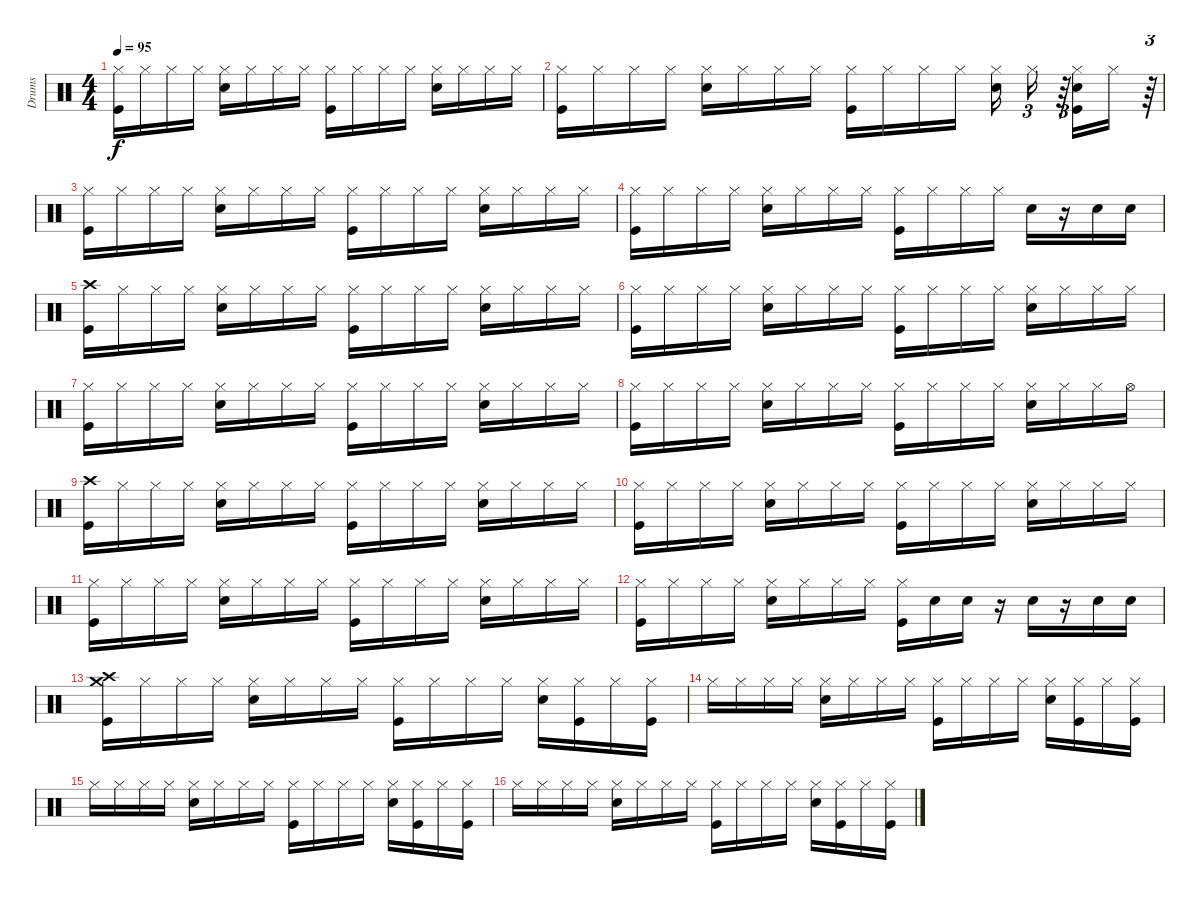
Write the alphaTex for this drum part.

\track ("Drums" "Drums") {instrument percussion}
\staff {score}
\articulation defaults
\ts (4 4)
\tempo 95
\clef neutral
\ks c
("Hi-Hat (closed)" "Kick (hit)").16{dy f} "Hi-Hat (closed)".16 "Hi-Hat (closed)".16 "Hi-Hat (closed)".16 ("Hi-Hat (closed)" "Snare (hit) 2").16 "Hi-Hat (closed)".16 "Hi-Hat (closed)".16 "Hi-Hat (closed)".16 ("Hi-Hat (closed)" "Kick (hit)").16 "Hi-Hat (closed)".16 "Hi-Hat (closed)".16 "Hi-Hat (closed)".16 ("Hi-Hat (closed)" "Snare (hit) 2").16 "Hi-Hat (closed)".16 "Hi-Hat (closed)".16 "Hi-Hat (closed)".16 |
("Hi-Hat (closed)" "Kick (hit)").16 "Hi-Hat (closed)".16 "Hi-Hat (closed)".16 "Hi-Hat (closed)".16 ("Hi-Hat (closed)" "Snare (hit) 2").16 "Hi-Hat (closed)".16 "Hi-Hat (closed)".16 "Hi-Hat (closed)".16 ("Hi-Hat (closed)" "Kick (hit)").16 "Hi-Hat (closed)".16 "Hi-Hat (closed)".16 "Hi-Hat (closed)".16 ("Hi-Hat (closed)" "Snare (hit) 2").16 "Hi-Hat (closed)".16{tu (3 2)} r.64{tu (3 2)} ("Hi-Hat (closed)" "Snare (hit) 2" "Kick (hit)").16 "Hi-Hat (closed)".16 r.64{tu (3 2)} |
("Hi-Hat (closed)" "Kick (hit)").16 "Hi-Hat (closed)".16 "Hi-Hat (closed)".16 "Hi-Hat (closed)".16 ("Hi-Hat (closed)" "Snare (hit) 2").16 "Hi-Hat (closed)".16 "Hi-Hat (closed)".16 "Hi-Hat (closed)".16 ("Hi-Hat (closed)" "Kick (hit)").16 "Hi-Hat (closed)".16 "Hi-Hat (closed)".16 "Hi-Hat (closed)".16 ("Hi-Hat (closed)" "Snare (hit) 2").16 "Hi-Hat (closed)".16 "Hi-Hat (closed)".16 "Hi-Hat (closed)".16 |
("Hi-Hat (closed)" "Kick (hit)").16 "Hi-Hat (closed)".16 "Hi-Hat (closed)".16 "Hi-Hat (closed)".16 ("Hi-Hat (closed)" "Snare (hit) 2").16 "Hi-Hat (closed)".16 "Hi-Hat (closed)".16 "Hi-Hat (closed)".16 ("Hi-Hat (closed)" "Kick (hit)").16 "Hi-Hat (closed)".16 "Hi-Hat (closed)".16 "Hi-Hat (closed)".16 "Snare (hit) 2".16 r.16 "Snare (hit) 2".16 "Snare (hit) 2".16 |
("Crash high (hit)" "Kick (hit)").16 "Hi-Hat (closed)".16 "Hi-Hat (closed)".16 "Hi-Hat (closed)".16 ("Hi-Hat (closed)" "Snare (hit) 2").16 "Hi-Hat (closed)".16 "Hi-Hat (closed)".16 "Hi-Hat (closed)".16 ("Hi-Hat (closed)" "Kick (hit)").16 "Hi-Hat (closed)".16 "Hi-Hat (closed)".16 "Hi-Hat (closed)".16 ("Hi-Hat (closed)" "Snare (hit) 2").16 "Hi-Hat (closed)".16 "Hi-Hat (closed)".16 "Hi-Hat (closed)".16 |
("Hi-Hat (closed)" "Kick (hit)").16 "Hi-Hat (closed)".16 "Hi-Hat (closed)".16 "Hi-Hat (closed)".16 ("Hi-Hat (closed)" "Snare (hit) 2").16 "Hi-Hat (closed)".16 "Hi-Hat (closed)".16 "Hi-Hat (closed)".16 ("Hi-Hat (closed)" "Kick (hit)").16 "Hi-Hat (closed)".16 "Hi-Hat (closed)".16 "Hi-Hat (closed)".16 ("Hi-Hat (closed)" "Snare (hit) 2").16 "Hi-Hat (closed)".16 "Hi-Hat (closed)".16 "Hi-Hat (closed)".16 |
("Hi-Hat (closed)" "Kick (hit)").16 "Hi-Hat (closed)".16 "Hi-Hat (closed)".16 "Hi-Hat (closed)".16 ("Hi-Hat (closed)" "Snare (hit) 2").16 "Hi-Hat (closed)".16 "Hi-Hat (closed)".16 "Hi-Hat (closed)".16 ("Hi-Hat (closed)" "Kick (hit)").16 "Hi-Hat (closed)".16 "Hi-Hat (closed)".16 "Hi-Hat (closed)".16 ("Hi-Hat (closed)" "Snare (hit) 2").16 "Hi-Hat (closed)".16 "Hi-Hat (closed)".16 "Hi-Hat (closed)".16 |
("Hi-Hat (closed)" "Kick (hit)").16 "Hi-Hat (closed)".16 "Hi-Hat (closed)".16 "Hi-Hat (closed)".16 ("Hi-Hat (closed)" "Snare (hit) 2").16 "Hi-Hat (closed)".16 "Hi-Hat (closed)".16 "Hi-Hat (closed)".16 ("Hi-Hat (closed)" "Kick (hit)").16 "Hi-Hat (closed)".16 "Hi-Hat (closed)".16 "Hi-Hat (closed)".16 ("Hi-Hat (closed)" "Snare (hit) 2").16 "Hi-Hat (closed)".16 "Hi-Hat (closed)".16 "Hi-Hat (open)".16 |
("Crash high (hit)" "Kick (hit)").16 "Hi-Hat (closed)".16 "Hi-Hat (closed)".16 "Hi-Hat (closed)".16 ("Hi-Hat (closed)" "Snare (hit) 2").16 "Hi-Hat (closed)".16 "Hi-Hat (closed)".16 "Hi-Hat (closed)".16 ("Hi-Hat (closed)" "Kick (hit)").16 "Hi-Hat (closed)".16 "Hi-Hat (closed)".16 "Hi-Hat (closed)".16 ("Hi-Hat (closed)" "Snare (hit) 2").16 "Hi-Hat (closed)".16 "Hi-Hat (closed)".16 "Hi-Hat (closed)".16 |
("Hi-Hat (closed)" "Kick (hit)").16 "Hi-Hat (closed)".16 "Hi-Hat (closed)".16 "Hi-Hat (closed)".16 ("Hi-Hat (closed)" "Snare (hit) 2").16 "Hi-Hat (closed)".16 "Hi-Hat (closed)".16 "Hi-Hat (closed)".16 ("Hi-Hat (closed)" "Kick (hit)").16 "Hi-Hat (closed)".16 "Hi-Hat (closed)".16 "Hi-Hat (closed)".16 ("Hi-Hat (closed)" "Snare (hit) 2").16 "Hi-Hat (closed)".16 "Hi-Hat (closed)".16 "Hi-Hat (closed)".16 |
("Hi-Hat (closed)" "Kick (hit)").16 "Hi-Hat (closed)".16 "Hi-Hat (closed)".16 "Hi-Hat (closed)".16 ("Hi-Hat (closed)" "Snare (hit) 2").16 "Hi-Hat (closed)".16 "Hi-Hat (closed)".16 "Hi-Hat (closed)".16 ("Hi-Hat (closed)" "Kick (hit)").16 "Hi-Hat (closed)".16 "Hi-Hat (closed)".16 "Hi-Hat (closed)".16 ("Hi-Hat (closed)" "Snare (hit) 2").16 "Hi-Hat (closed)".16 "Hi-Hat (closed)".16 "Hi-Hat (closed)".16 |
("Hi-Hat (closed)" "Kick (hit)").16 "Hi-Hat (closed)".16 "Hi-Hat (closed)".16 "Hi-Hat (closed)".16 ("Hi-Hat (closed)" "Snare (hit) 2").16 "Hi-Hat (closed)".16 "Hi-Hat (closed)".16 "Hi-Hat (closed)".16 ("Hi-Hat (closed)" "Kick (hit)").16 "Snare (hit) 2".16 "Snare (hit) 2".16 r.16 "Snare (hit) 2".16 r.16 "Snare (hit) 2".16 "Snare (hit) 2".16 |
("Crash high (hit)" "Crash medium (hit)" "Kick (hit)").16 "Hi-Hat (closed)".16 "Hi-Hat (closed)".16 "Hi-Hat (closed)".16 ("Hi-Hat (closed)" "Snare (hit) 2").16 "Hi-Hat (closed)".16 "Hi-Hat (closed)".16 "Hi-Hat (closed)".16 ("Hi-Hat (closed)" "Kick (hit)").16 "Hi-Hat (closed)".16 "Hi-Hat (closed)".16 "Hi-Hat (closed)".16 ("Hi-Hat (closed)" "Snare (hit) 2").16 ("Hi-Hat (closed)" "Kick (hit)").16 "Hi-Hat (closed)".16 ("Hi-Hat (closed)" "Kick (hit)").16 |
"Hi-Hat (closed)".16 "Hi-Hat (closed)".16 "Hi-Hat (closed)".16 "Hi-Hat (closed)".16 ("Hi-Hat (closed)" "Snare (hit) 2").16 "Hi-Hat (closed)".16 "Hi-Hat (closed)".16 "Hi-Hat (closed)".16 ("Hi-Hat (closed)" "Kick (hit)").16 "Hi-Hat (closed)".16 "Hi-Hat (closed)".16 "Hi-Hat (closed)".16 ("Hi-Hat (closed)" "Snare (hit) 2").16 ("Hi-Hat (closed)" "Kick (hit)").16 "Hi-Hat (closed)".16 ("Hi-Hat (closed)" "Kick (hit)").16 |
"Hi-Hat (closed)".16 "Hi-Hat (closed)".16 "Hi-Hat (closed)".16 "Hi-Hat (closed)".16 ("Hi-Hat (closed)" "Snare (hit) 2").16 "Hi-Hat (closed)".16 "Hi-Hat (closed)".16 "Hi-Hat (closed)".16 ("Hi-Hat (closed)" "Kick (hit)").16 "Hi-Hat (closed)".16 "Hi-Hat (closed)".16 "Hi-Hat (closed)".16 ("Hi-Hat (closed)" "Snare (hit) 2").16 ("Hi-Hat (closed)" "Kick (hit)").16 "Hi-Hat (closed)".16 ("Hi-Hat (closed)" "Kick (hit)").16 |
"Hi-Hat (closed)".16 "Hi-Hat (closed)".16 "Hi-Hat (closed)".16 "Hi-Hat (closed)".16 ("Hi-Hat (closed)" "Snare (hit) 2").16 "Hi-Hat (closed)".16 "Hi-Hat (closed)".16 "Hi-Hat (closed)".16 ("Hi-Hat (closed)" "Kick (hit)").16 "Hi-Hat (closed)".16 "Hi-Hat (closed)".16 "Hi-Hat (closed)".16 ("Hi-Hat (closed)" "Snare (hit) 2").16 ("Hi-Hat (closed)" "Kick (hit)").16 "Hi-Hat (closed)".16 ("Hi-Hat (closed)" "Kick (hit)").16
